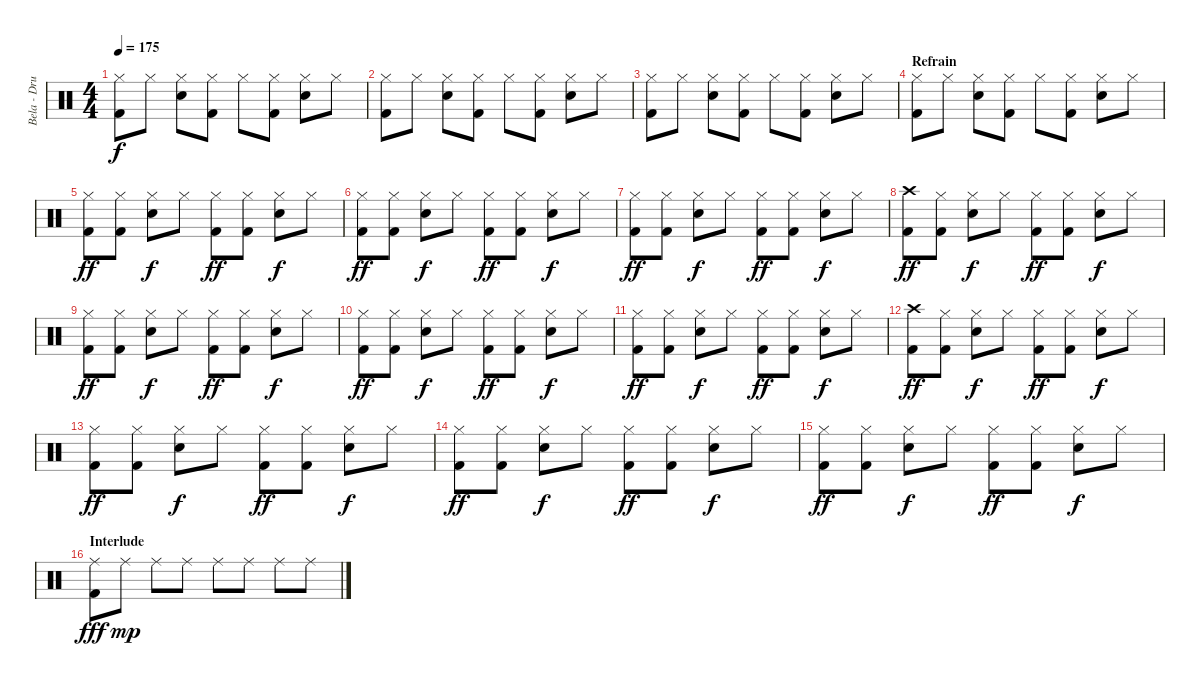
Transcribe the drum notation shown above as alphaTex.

\track ("Bela - Drums" "Bela - Dru") {instrument percussion}
\staff {score}
\articulation defaults
\ts (4 4)
\tempo 175
\clef neutral
\ks c
("Hi-Hat (closed)" "Kick (hit) 2").8{dy f} "Hi-Hat (closed)".8 ("Hi-Hat (closed)" "Electric Snare (hit)").8 ("Hi-Hat (closed)" "Kick (hit) 2").8 "Hi-Hat (closed)".8 ("Hi-Hat (closed)" "Kick (hit) 2").8 ("Hi-Hat (closed)" "Electric Snare (hit)").8 "Hi-Hat (closed)".8 |
("Hi-Hat (closed)" "Kick (hit) 2").8 "Hi-Hat (closed)".8 ("Hi-Hat (closed)" "Electric Snare (hit)").8 ("Hi-Hat (closed)" "Kick (hit) 2").8 "Hi-Hat (closed)".8 ("Hi-Hat (closed)" "Kick (hit) 2").8 ("Hi-Hat (closed)" "Electric Snare (hit)").8 "Hi-Hat (closed)".8 |
("Hi-Hat (closed)" "Kick (hit) 2").8 "Hi-Hat (closed)".8 ("Hi-Hat (closed)" "Electric Snare (hit)").8 ("Hi-Hat (closed)" "Kick (hit) 2").8 "Hi-Hat (closed)".8 ("Hi-Hat (closed)" "Kick (hit) 2").8 ("Hi-Hat (closed)" "Electric Snare (hit)").8 "Hi-Hat (closed)".8 |
\section ("" "Refrain")
("Hi-Hat (closed)" "Kick (hit) 2").8 "Hi-Hat (closed)".8 ("Hi-Hat (closed)" "Electric Snare (hit)").8 ("Hi-Hat (closed)" "Kick (hit) 2").8 "Hi-Hat (closed)".8 ("Hi-Hat (closed)" "Kick (hit) 2").8 ("Hi-Hat (closed)" "Electric Snare (hit)").8 "Hi-Hat (closed)".8 |
("Hi-Hat (closed)" "Kick (hit) 2").8{dy ff} ("Hi-Hat (closed)" "Kick (hit) 2").8 ("Hi-Hat (closed)" "Electric Snare (hit)").8{dy f} "Hi-Hat (closed)".8 ("Hi-Hat (closed)" "Kick (hit) 2").8{dy ff} ("Hi-Hat (closed)" "Kick (hit) 2").8 ("Hi-Hat (closed)" "Electric Snare (hit)").8{dy f} "Hi-Hat (closed)".8 |
("Hi-Hat (closed)" "Kick (hit) 2").8{dy ff} ("Hi-Hat (closed)" "Kick (hit) 2").8 ("Hi-Hat (closed)" "Electric Snare (hit)").8{dy f} "Hi-Hat (closed)".8 ("Hi-Hat (closed)" "Kick (hit) 2").8{dy ff} ("Hi-Hat (closed)" "Kick (hit) 2").8 ("Hi-Hat (closed)" "Electric Snare (hit)").8{dy f} "Hi-Hat (closed)".8 |
("Hi-Hat (closed)" "Kick (hit) 2").8{dy ff} ("Hi-Hat (closed)" "Kick (hit) 2").8 ("Hi-Hat (closed)" "Electric Snare (hit)").8{dy f} "Hi-Hat (closed)".8 ("Hi-Hat (closed)" "Kick (hit) 2").8{dy ff} ("Hi-Hat (closed)" "Kick (hit) 2").8 ("Hi-Hat (closed)" "Electric Snare (hit)").8{dy f} "Hi-Hat (closed)".8 |
("Crash high (hit)" "Kick (hit) 2").8{dy ff} ("Hi-Hat (closed)" "Kick (hit) 2").8 ("Hi-Hat (closed)" "Electric Snare (hit)").8{dy f} "Hi-Hat (closed)".8 ("Hi-Hat (closed)" "Kick (hit) 2").8{dy ff} ("Hi-Hat (closed)" "Kick (hit) 2").8 ("Hi-Hat (closed)" "Electric Snare (hit)").8{dy f} "Hi-Hat (closed)".8 |
("Hi-Hat (closed)" "Kick (hit) 2").8{dy ff} ("Hi-Hat (closed)" "Kick (hit) 2").8 ("Hi-Hat (closed)" "Electric Snare (hit)").8{dy f} "Hi-Hat (closed)".8 ("Hi-Hat (closed)" "Kick (hit) 2").8{dy ff} ("Hi-Hat (closed)" "Kick (hit) 2").8 ("Hi-Hat (closed)" "Electric Snare (hit)").8{dy f} "Hi-Hat (closed)".8 |
("Hi-Hat (closed)" "Kick (hit) 2").8{dy ff} ("Hi-Hat (closed)" "Kick (hit) 2").8 ("Hi-Hat (closed)" "Electric Snare (hit)").8{dy f} "Hi-Hat (closed)".8 ("Hi-Hat (closed)" "Kick (hit) 2").8{dy ff} ("Hi-Hat (closed)" "Kick (hit) 2").8 ("Hi-Hat (closed)" "Electric Snare (hit)").8{dy f} "Hi-Hat (closed)".8 |
("Hi-Hat (closed)" "Kick (hit) 2").8{dy ff} ("Hi-Hat (closed)" "Kick (hit) 2").8 ("Hi-Hat (closed)" "Electric Snare (hit)").8{dy f} "Hi-Hat (closed)".8 ("Hi-Hat (closed)" "Kick (hit) 2").8{dy ff} ("Hi-Hat (closed)" "Kick (hit) 2").8 ("Hi-Hat (closed)" "Electric Snare (hit)").8{dy f} "Hi-Hat (closed)".8 |
("Crash high (hit)" "Kick (hit) 2").8{dy ff} ("Hi-Hat (closed)" "Kick (hit) 2").8 ("Hi-Hat (closed)" "Electric Snare (hit)").8{dy f} "Hi-Hat (closed)".8 ("Hi-Hat (closed)" "Kick (hit) 2").8{dy ff} ("Hi-Hat (closed)" "Kick (hit) 2").8 ("Hi-Hat (closed)" "Electric Snare (hit)").8{dy f} "Hi-Hat (closed)".8 |
("Hi-Hat (closed)" "Kick (hit) 2").8{dy ff} ("Hi-Hat (closed)" "Kick (hit) 2").8 ("Hi-Hat (closed)" "Electric Snare (hit)").8{dy f} "Hi-Hat (closed)".8 ("Hi-Hat (closed)" "Kick (hit) 2").8{dy ff} ("Hi-Hat (closed)" "Kick (hit) 2").8 ("Hi-Hat (closed)" "Electric Snare (hit)").8{dy f} "Hi-Hat (closed)".8 |
("Hi-Hat (closed)" "Kick (hit) 2").8{dy ff} ("Hi-Hat (closed)" "Kick (hit) 2").8 ("Hi-Hat (closed)" "Electric Snare (hit)").8{dy f} "Hi-Hat (closed)".8 ("Hi-Hat (closed)" "Kick (hit) 2").8{dy ff} ("Hi-Hat (closed)" "Kick (hit) 2").8 ("Hi-Hat (closed)" "Electric Snare (hit)").8{dy f} "Hi-Hat (closed)".8 |
("Hi-Hat (closed)" "Kick (hit) 2").8{dy ff} ("Hi-Hat (closed)" "Kick (hit) 2").8 ("Hi-Hat (closed)" "Electric Snare (hit)").8{dy f} "Hi-Hat (closed)".8 ("Hi-Hat (closed)" "Kick (hit) 2").8{dy ff} ("Hi-Hat (closed)" "Kick (hit) 2").8 ("Hi-Hat (closed)" "Electric Snare (hit)").8{dy f} "Hi-Hat (closed)".8 |
\section ("" "Interlude")
("Ride (middle)" "Kick (hit) 2").8{dy fff} "Ride (middle)".8{dy mp} "Ride (middle)".8 "Ride (middle)".8 "Ride (middle)".8 "Ride (middle)".8 "Ride (middle)".8 "Ride (middle)".8
